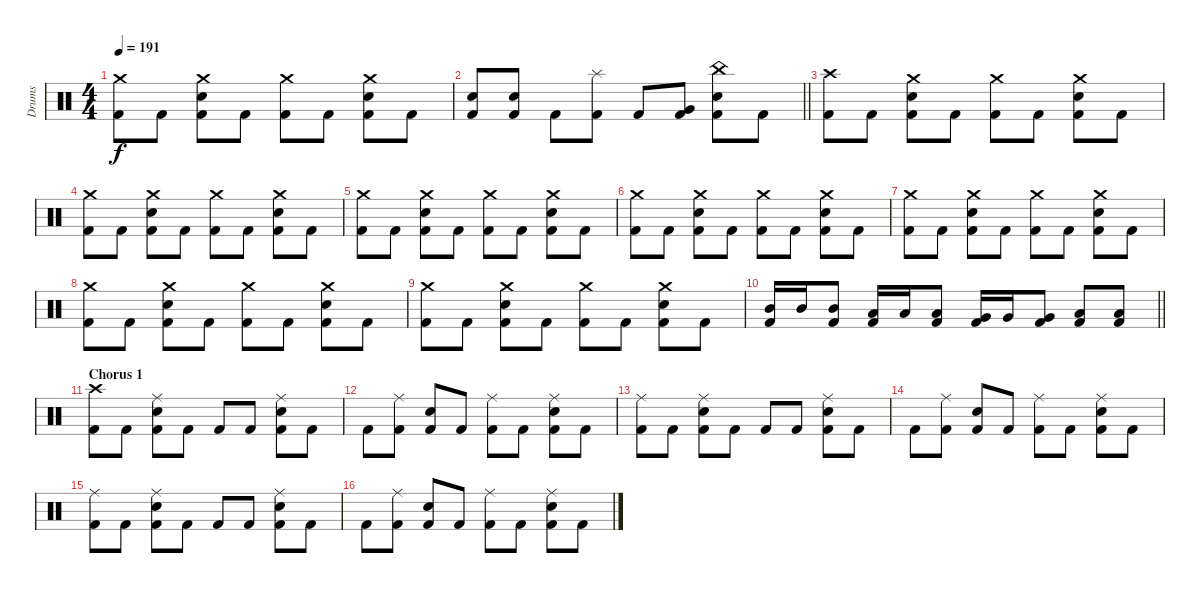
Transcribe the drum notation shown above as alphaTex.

\track ("Drums" "Drums") {instrument percussion}
\staff {score}
\articulation defaults
\ts (4 4)
\tempo 191
\clef neutral
\ks c
("Crash medium (hit)" "Kick (hit) 2").8{dy f} "Kick (hit) 2".8 ("Crash medium (hit)" "Snare (hit) 2" "Kick (hit) 2").8 "Kick (hit) 2".8 ("Crash medium (hit)" "Kick (hit) 2").8 "Kick (hit) 2".8 ("Crash medium (hit)" "Snare (hit) 2" "Kick (hit) 2").8 "Kick (hit) 2".8 |
\barLineRight lightlight
("Snare (hit) 2" "Kick (hit) 2").8 ("Snare (hit) 2" "Kick (hit) 2").8 "Kick (hit) 2".8 ("Splash (hit)" "Kick (hit) 2").8 "Kick (hit) 2".8 ("Very Low Tom (hit)" "Kick (hit) 2").8 ("China (hit)" "Snare (hit) 2" "Kick (hit) 2").8 "Kick (hit) 2".8 |
\section ("" "")
("Crash high (hit)" "Kick (hit) 2").8 "Kick (hit) 2".8 ("Crash medium (hit)" "Snare (hit) 2" "Kick (hit) 2").8 "Kick (hit) 2".8 ("Crash medium (hit)" "Kick (hit) 2").8 "Kick (hit) 2".8 ("Crash medium (hit)" "Snare (hit) 2" "Kick (hit) 2").8 "Kick (hit) 2".8 |
("Crash medium (hit)" "Kick (hit) 2").8 "Kick (hit) 2".8 ("Crash medium (hit)" "Snare (hit) 2" "Kick (hit) 2").8 "Kick (hit) 2".8 ("Crash medium (hit)" "Kick (hit) 2").8 "Kick (hit) 2".8 ("Crash medium (hit)" "Snare (hit) 2" "Kick (hit) 2").8 "Kick (hit) 2".8 |
("Crash medium (hit)" "Kick (hit) 2").8 "Kick (hit) 2".8 ("Crash medium (hit)" "Snare (hit) 2" "Kick (hit) 2").8 "Kick (hit) 2".8 ("Crash medium (hit)" "Kick (hit) 2").8 "Kick (hit) 2".8 ("Crash medium (hit)" "Snare (hit) 2" "Kick (hit) 2").8 "Kick (hit) 2".8 |
("Crash medium (hit)" "Kick (hit) 2").8 "Kick (hit) 2".8 ("Crash medium (hit)" "Snare (hit) 2" "Kick (hit) 2").8 "Kick (hit) 2".8 ("Crash medium (hit)" "Kick (hit) 2").8 "Kick (hit) 2".8 ("Crash medium (hit)" "Snare (hit) 2" "Kick (hit) 2").8 "Kick (hit) 2".8 |
("Crash medium (hit)" "Kick (hit) 2").8 "Kick (hit) 2".8 ("Crash medium (hit)" "Snare (hit) 2" "Kick (hit) 2").8 "Kick (hit) 2".8 ("Crash medium (hit)" "Kick (hit) 2").8 "Kick (hit) 2".8 ("Crash medium (hit)" "Snare (hit) 2" "Kick (hit) 2").8 "Kick (hit) 2".8 |
("Crash medium (hit)" "Kick (hit) 2").8 "Kick (hit) 2".8 ("Crash medium (hit)" "Snare (hit) 2" "Kick (hit) 2").8 "Kick (hit) 2".8 ("Crash medium (hit)" "Kick (hit) 2").8 "Kick (hit) 2".8 ("Crash medium (hit)" "Snare (hit) 2" "Kick (hit) 2").8 "Kick (hit) 2".8 |
("Crash medium (hit)" "Kick (hit) 2").8 "Kick (hit) 2".8 ("Crash medium (hit)" "Snare (hit) 2" "Kick (hit) 2").8 "Kick (hit) 2".8 ("Crash medium (hit)" "Kick (hit) 2").8 "Kick (hit) 2".8 ("Crash medium (hit)" "Snare (hit) 2" "Kick (hit) 2").8 "Kick (hit) 2".8 |
\barLineRight lightlight
("Mid Tom (hit)" "Kick (hit) 2").16 "Mid Tom (hit)".16 ("Mid Tom (hit)" "Kick (hit) 2").8 ("Low Tom (hit)" "Kick (hit) 2").16 "Low Tom (hit)".16 ("Low Tom (hit)" "Kick (hit) 2").8 ("Very Low Tom (hit)" "Kick (hit) 2").16 "Very Low Tom (hit)".16 ("Very Low Tom (hit)" "Kick (hit) 2").8 ("Low Floor Tom (hit)" "Kick (hit) 2").8 ("Low Floor Tom (hit)" "Kick (hit) 2").8 |
\section ("" "Chorus 1")
("Crash high (hit)" "Kick (hit) 2").8 "Kick (hit) 2".8 ("Ride (middle)" "Snare (hit) 2" "Kick (hit) 2").8 "Kick (hit) 2".8 "Kick (hit) 2".8 "Kick (hit) 2".8 ("Ride (middle)" "Snare (hit) 2" "Kick (hit) 2").8 "Kick (hit) 2".8 |
"Kick (hit) 2".8 ("Ride (middle)" "Kick (hit) 2").8 ("Snare (hit) 2" "Kick (hit) 2").8 "Kick (hit) 2".8 ("Ride (middle)" "Kick (hit) 2").8 "Kick (hit) 2".8 ("Ride (middle)" "Snare (hit) 2" "Kick (hit) 2").8 "Kick (hit) 2".8 |
("Ride (middle)" "Kick (hit) 2").8 "Kick (hit) 2".8 ("Ride (middle)" "Snare (hit) 2" "Kick (hit) 2").8 "Kick (hit) 2".8 "Kick (hit) 2".8 "Kick (hit) 2".8 ("Ride (middle)" "Snare (hit) 2" "Kick (hit) 2").8 "Kick (hit) 2".8 |
"Kick (hit) 2".8 ("Ride (middle)" "Kick (hit) 2").8 ("Snare (hit) 2" "Kick (hit) 2").8 "Kick (hit) 2".8 ("Ride (middle)" "Kick (hit) 2").8 "Kick (hit) 2".8 ("Ride (middle)" "Snare (hit) 2" "Kick (hit) 2").8 "Kick (hit) 2".8 |
("Ride (middle)" "Kick (hit) 2").8 "Kick (hit) 2".8 ("Ride (middle)" "Snare (hit) 2" "Kick (hit) 2").8 "Kick (hit) 2".8 "Kick (hit) 2".8 "Kick (hit) 2".8 ("Ride (middle)" "Snare (hit) 2" "Kick (hit) 2").8 "Kick (hit) 2".8 |
"Kick (hit) 2".8 ("Ride (middle)" "Kick (hit) 2").8 ("Snare (hit) 2" "Kick (hit) 2").8 "Kick (hit) 2".8 ("Ride (middle)" "Kick (hit) 2").8 "Kick (hit) 2".8 ("Ride (middle)" "Snare (hit) 2" "Kick (hit) 2").8 "Kick (hit) 2".8
